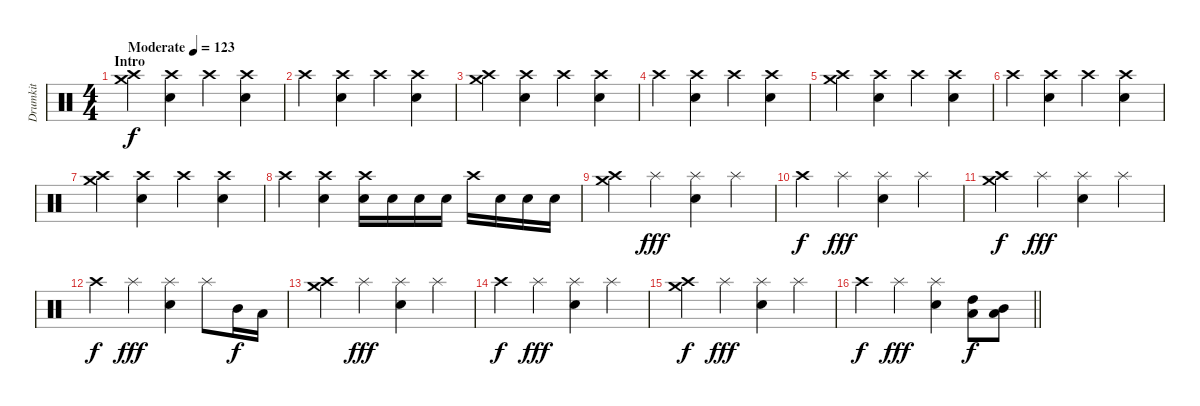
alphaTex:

\track ("Drumkit" "Drumkit") {instrument percussion}
\staff {score}
\articulation defaults
\ts (4 4)
\section ("" "Intro")
\tempo (123 "Moderate")
\clef neutral
\ks c
("Crash medium (hit)" "Crash high (hit)").4{dy f} ("Crash high (hit)" "Electric Snare (hit)").4 "Crash high (hit)".4 ("Crash high (hit)" "Electric Snare (hit)").4 |
"Crash high (hit)".4 ("Crash high (hit)" "Electric Snare (hit)").4 "Crash high (hit)".4 ("Crash high (hit)" "Electric Snare (hit)").4 |
("Crash medium (hit)" "Crash high (hit)").4 ("Crash high (hit)" "Electric Snare (hit)").4 "Crash high (hit)".4 ("Crash high (hit)" "Electric Snare (hit)").4 |
"Crash high (hit)".4 ("Crash high (hit)" "Electric Snare (hit)").4 "Crash high (hit)".4 ("Crash high (hit)" "Electric Snare (hit)").4 |
("Crash medium (hit)" "Crash high (hit)").4 ("Crash high (hit)" "Electric Snare (hit)").4 "Crash high (hit)".4 ("Crash high (hit)" "Electric Snare (hit)").4 |
"Crash high (hit)".4 ("Crash high (hit)" "Electric Snare (hit)").4 "Crash high (hit)".4 ("Crash high (hit)" "Electric Snare (hit)").4 |
("Crash medium (hit)" "Crash high (hit)").4 ("Crash high (hit)" "Electric Snare (hit)").4 "Crash high (hit)".4 ("Crash high (hit)" "Electric Snare (hit)").4 |
"Crash high (hit)".4 ("Crash high (hit)" "Electric Snare (hit)").4 ("Crash high (hit)" "Electric Snare (hit)").16 "Electric Snare (hit)".16 "Electric Snare (hit)".16 "Electric Snare (hit)".16 "Crash high (hit)".16 "Electric Snare (hit)".16 "Electric Snare (hit)".16 "Electric Snare (hit)".16 |
("Crash medium (hit)" "Crash high (hit)").4 "Splash (hit)".4{dy fff} ("Splash (hit)" "Electric Snare (hit)").4 "Splash (hit)".4 |
"Crash high (hit)".4{dy f} "Splash (hit)".4{dy fff} ("Splash (hit)" "Electric Snare (hit)").4 "Splash (hit)".4 |
("Crash medium (hit)" "Crash high (hit)").4{dy f} "Splash (hit)".4{dy fff} ("Splash (hit)" "Electric Snare (hit)").4 "Splash (hit)".4 |
"Crash high (hit)".4{dy f} "Splash (hit)".4{dy fff} ("Splash (hit)" "Electric Snare (hit)").4 "Splash (hit)".8 "Mid Tom (hit)".16{dy f} "Low Tom (hit)".16 |
("Crash medium (hit)" "Crash high (hit)").4 "Splash (hit)".4{dy fff} ("Splash (hit)" "Electric Snare (hit)").4 "Splash (hit)".4 |
"Crash high (hit)".4{dy f} "Splash (hit)".4{dy fff} ("Splash (hit)" "Electric Snare (hit)").4 "Splash (hit)".4 |
("Crash medium (hit)" "Crash high (hit)").4{dy f} "Splash (hit)".4{dy fff} ("Splash (hit)" "Electric Snare (hit)").4 "Splash (hit)".4 |
\barLineRight lightlight "Crash high (hit)".4{dy f} "Splash (hit)".4{dy fff}
("Splash (hit)" "Electric Snare (hit)").4 ("High Tom (hit)" "Low Floor Tom (hit)").8{dy f} ("Mid Tom (hit)" "Low Floor Tom (hit)").8
